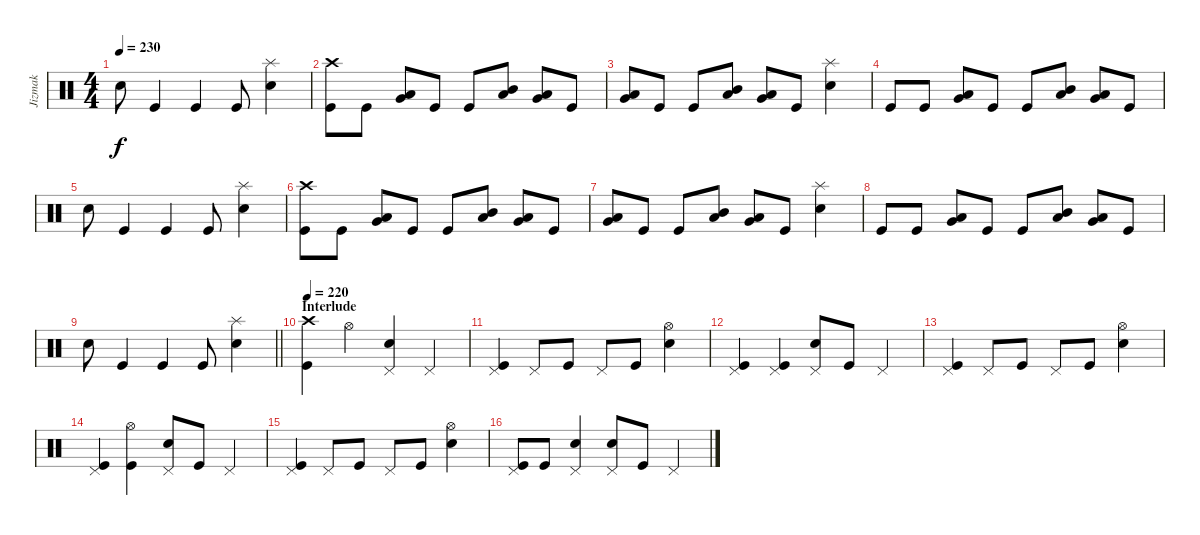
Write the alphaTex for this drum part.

\track ("Jizmak" "Jizmak") {instrument percussion}
\staff {score}
\articulation defaults
\ts (4 4)
\tempo 230
\clef neutral
\ks c "Snare (hit) 2".8{dy f} "Kick (hit)".4 "Kick (hit)".4 "Kick (hit)".8
("Splash (hit)" "Snare (hit) 2").4 |
("Crash high (hit)" "Kick (hit)").8 "Kick (hit)".8 ("Low Tom (hit)" "Very Low Tom (hit)").8 "Kick (hit)".8 "Kick (hit)".8 ("Mid Tom (hit)" "Low Tom (hit)").8 ("Low Tom (hit)" "Very Low Tom (hit)").8 "Kick (hit)".8 |
("Low Tom (hit)" "Very Low Tom (hit)").8 "Kick (hit)".8 "Kick (hit)".8 ("Mid Tom (hit)" "Low Tom (hit)").8 ("Low Tom (hit)" "Very Low Tom (hit)").8 "Kick (hit)".8 ("Splash (hit)" "Snare (hit) 2").4 |
"Kick (hit)".8 "Kick (hit)".8 ("Low Tom (hit)" "Very Low Tom (hit)").8 "Kick (hit)".8 "Kick (hit)".8 ("Mid Tom (hit)" "Low Tom (hit)").8 ("Low Tom (hit)" "Very Low Tom (hit)").8 "Kick (hit)".8 |
"Snare (hit) 2".8 "Kick (hit)".4 "Kick (hit)".4 "Kick (hit)".8 ("Splash (hit)" "Snare (hit) 2").4 |
("Crash high (hit)" "Kick (hit)").8 "Kick (hit)".8 ("Low Tom (hit)" "Very Low Tom (hit)").8 "Kick (hit)".8 "Kick (hit)".8 ("Mid Tom (hit)" "Low Tom (hit)").8 ("Low Tom (hit)" "Very Low Tom (hit)").8 "Kick (hit)".8 |
("Low Tom (hit)" "Very Low Tom (hit)").8 "Kick (hit)".8 "Kick (hit)".8 ("Mid Tom (hit)" "Low Tom (hit)").8 ("Low Tom (hit)" "Very Low Tom (hit)").8 "Kick (hit)".8 ("Splash (hit)" "Snare (hit) 2").4 |
"Kick (hit)".8 "Kick (hit)".8 ("Low Tom (hit)" "Very Low Tom (hit)").8 "Kick (hit)".8 "Kick (hit)".8 ("Mid Tom (hit)" "Low Tom (hit)").8 ("Low Tom (hit)" "Very Low Tom (hit)").8 "Kick (hit)".8 |
\barLineRight lightlight "Snare (hit) 2".8 "Kick (hit)".4 "Kick (hit)".4 "Kick (hit)".8
("Splash (hit)" "Snare (hit) 2").4 |
\section ("" "Interlude")
\tempo 220
("Crash high (hit)" "Kick (hit)").4 "Hi-Hat (open)".4 ("Pedal Hi-Hat (hit)" "Snare (hit) 2").4 "Pedal Hi-Hat (hit)".4 |
("Pedal Hi-Hat (hit)" "Kick (hit)").4 "Pedal Hi-Hat (hit)".8 "Kick (hit)".8 "Pedal Hi-Hat (hit)".8 "Kick (hit)".8 ("Hi-Hat (open)" "Snare (hit) 2").4 |
("Pedal Hi-Hat (hit)" "Kick (hit)").4 ("Pedal Hi-Hat (hit)" "Kick (hit)").4 ("Pedal Hi-Hat (hit)" "Snare (hit) 2").8 "Kick (hit)".8 "Pedal Hi-Hat (hit)".4 |
("Pedal Hi-Hat (hit)" "Kick (hit)").4 "Pedal Hi-Hat (hit)".8 "Kick (hit)".8 "Pedal Hi-Hat (hit)".8 "Kick (hit)".8 ("Hi-Hat (open)" "Snare (hit) 2").4 |
("Pedal Hi-Hat (hit)" "Kick (hit)").4 ("Hi-Hat (open)" "Kick (hit)").4 ("Pedal Hi-Hat (hit)" "Snare (hit) 2").8 "Kick (hit)".8 "Pedal Hi-Hat (hit)".4 |
("Pedal Hi-Hat (hit)" "Kick (hit)").4 "Pedal Hi-Hat (hit)".8 "Kick (hit)".8 "Pedal Hi-Hat (hit)".8 "Kick (hit)".8 ("Hi-Hat (open)" "Snare (hit) 2").4 |
("Pedal Hi-Hat (hit)" "Kick (hit)").8 "Kick (hit)".8 ("Pedal Hi-Hat (hit)" "Snare (hit) 2").4 ("Pedal Hi-Hat (hit)" "Snare (hit) 2").8 "Kick (hit)".8 "Pedal Hi-Hat (hit)".4
